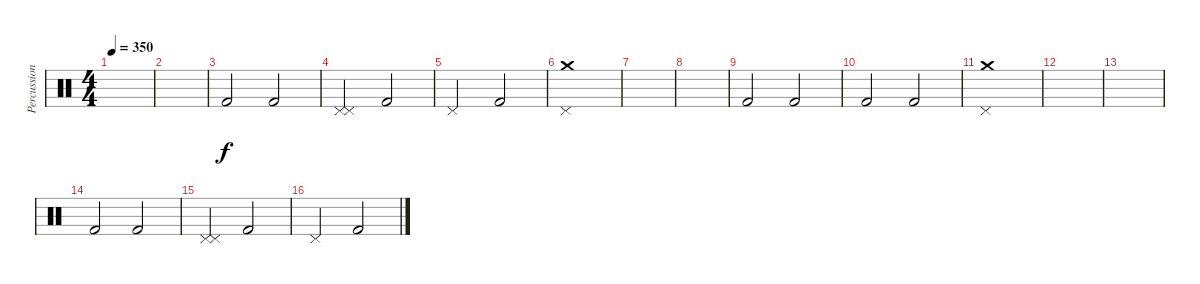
\track ("Percussion" "Percussion") {instrument percussion}
\staff {score}
\articulation defaults
\ts (4 4)
\tempo 350
\clef neutral
\ks c
|
|
"Kick (hit) 2".2 "Kick (hit) 2".2 |
("Pedal Hi-Hat (hit)" "Pedal Hi-Hat (hit)").2 "Kick (hit) 2".2 |
"Pedal Hi-Hat (hit)".2 "Kick (hit) 2".2 |
("Crash medium (hit)" "Pedal Hi-Hat (hit)").1 |
|
|
"Kick (hit) 2".2 "Kick (hit) 2".2 |
"Kick (hit) 2".2 "Kick (hit) 2".2 |
("Crash medium (hit)" "Pedal Hi-Hat (hit)").1 |
|
|
"Kick (hit) 2".2 "Kick (hit) 2".2 |
("Pedal Hi-Hat (hit)" "Pedal Hi-Hat (hit)").2 "Kick (hit) 2".2 |
"Pedal Hi-Hat (hit)".2 "Kick (hit) 2".2
